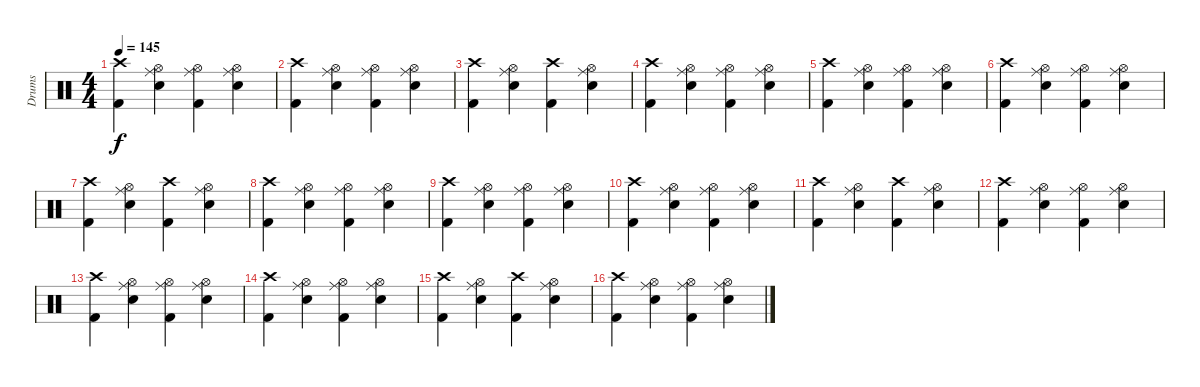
\track ("Drums" "Drums") {instrument percussion}
\staff {score}
\articulation defaults
\ts (4 4)
\tempo 145
\clef neutral
\ks c
("Crash high (hit)" "Kick (hit) 2").4{dy f} ("Hi-Hat (open)" "Ride (middle)" "Snare (hit) 2").4 ("Hi-Hat (open)" "Ride (middle)" "Kick (hit) 2").4 ("Hi-Hat (open)" "Ride (middle)" "Snare (hit) 2").4 |
("Crash high (hit)" "Kick (hit) 2").4 ("Hi-Hat (open)" "Ride (middle)" "Snare (hit) 2").4 ("Hi-Hat (open)" "Ride (middle)" "Kick (hit) 2").4 ("Hi-Hat (open)" "Ride (middle)" "Snare (hit) 2").4 |
("Crash high (hit)" "Kick (hit) 2").4 ("Hi-Hat (open)" "Ride (middle)" "Snare (hit) 2").4 ("Crash high (hit)" "Kick (hit) 2").4 ("Hi-Hat (open)" "Ride (middle)" "Snare (hit) 2").4 |
("Crash high (hit)" "Kick (hit) 2").4 ("Hi-Hat (open)" "Ride (middle)" "Snare (hit) 2").4 ("Hi-Hat (open)" "Ride (middle)" "Kick (hit) 2").4 ("Hi-Hat (open)" "Ride (middle)" "Snare (hit) 2").4 |
("Crash high (hit)" "Kick (hit) 2").4 ("Hi-Hat (open)" "Ride (middle)" "Snare (hit) 2").4 ("Hi-Hat (open)" "Ride (middle)" "Kick (hit) 2").4 ("Hi-Hat (open)" "Ride (middle)" "Snare (hit) 2").4 |
("Crash high (hit)" "Kick (hit) 2").4 ("Hi-Hat (open)" "Ride (middle)" "Snare (hit) 2").4 ("Hi-Hat (open)" "Ride (middle)" "Kick (hit) 2").4 ("Hi-Hat (open)" "Ride (middle)" "Snare (hit) 2").4 |
("Crash high (hit)" "Kick (hit) 2").4 ("Hi-Hat (open)" "Ride (middle)" "Snare (hit) 2").4 ("Crash high (hit)" "Kick (hit) 2").4 ("Hi-Hat (open)" "Ride (middle)" "Snare (hit) 2").4 |
("Crash high (hit)" "Kick (hit) 2").4 ("Hi-Hat (open)" "Ride (middle)" "Snare (hit) 2").4 ("Hi-Hat (open)" "Ride (middle)" "Kick (hit) 2").4 ("Hi-Hat (open)" "Ride (middle)" "Snare (hit) 2").4 |
("Crash high (hit)" "Kick (hit) 2").4 ("Hi-Hat (open)" "Ride (middle)" "Snare (hit) 2").4 ("Hi-Hat (open)" "Ride (middle)" "Kick (hit) 2").4 ("Hi-Hat (open)" "Ride (middle)" "Snare (hit) 2").4 |
("Crash high (hit)" "Kick (hit) 2").4 ("Hi-Hat (open)" "Ride (middle)" "Snare (hit) 2").4 ("Hi-Hat (open)" "Ride (middle)" "Kick (hit) 2").4 ("Hi-Hat (open)" "Ride (middle)" "Snare (hit) 2").4 |
("Crash high (hit)" "Kick (hit) 2").4 ("Hi-Hat (open)" "Ride (middle)" "Snare (hit) 2").4 ("Crash high (hit)" "Kick (hit) 2").4 ("Hi-Hat (open)" "Ride (middle)" "Snare (hit) 2").4 |
("Crash high (hit)" "Kick (hit) 2").4 ("Hi-Hat (open)" "Ride (middle)" "Snare (hit) 2").4 ("Hi-Hat (open)" "Ride (middle)" "Kick (hit) 2").4 ("Hi-Hat (open)" "Ride (middle)" "Snare (hit) 2").4 |
("Crash high (hit)" "Kick (hit) 2").4 ("Hi-Hat (open)" "Ride (middle)" "Snare (hit) 2").4 ("Hi-Hat (open)" "Ride (middle)" "Kick (hit) 2").4 ("Hi-Hat (open)" "Ride (middle)" "Snare (hit) 2").4 |
("Crash high (hit)" "Kick (hit) 2").4 ("Hi-Hat (open)" "Ride (middle)" "Snare (hit) 2").4 ("Hi-Hat (open)" "Ride (middle)" "Kick (hit) 2").4 ("Hi-Hat (open)" "Ride (middle)" "Snare (hit) 2").4 |
("Crash high (hit)" "Kick (hit) 2").4 ("Hi-Hat (open)" "Ride (middle)" "Snare (hit) 2").4 ("Crash high (hit)" "Kick (hit) 2").4 ("Hi-Hat (open)" "Ride (middle)" "Snare (hit) 2").4 |
("Crash high (hit)" "Kick (hit) 2").4 ("Hi-Hat (open)" "Ride (middle)" "Snare (hit) 2").4 ("Hi-Hat (open)" "Ride (middle)" "Kick (hit) 2").4 ("Hi-Hat (open)" "Ride (middle)" "Snare (hit) 2").4
